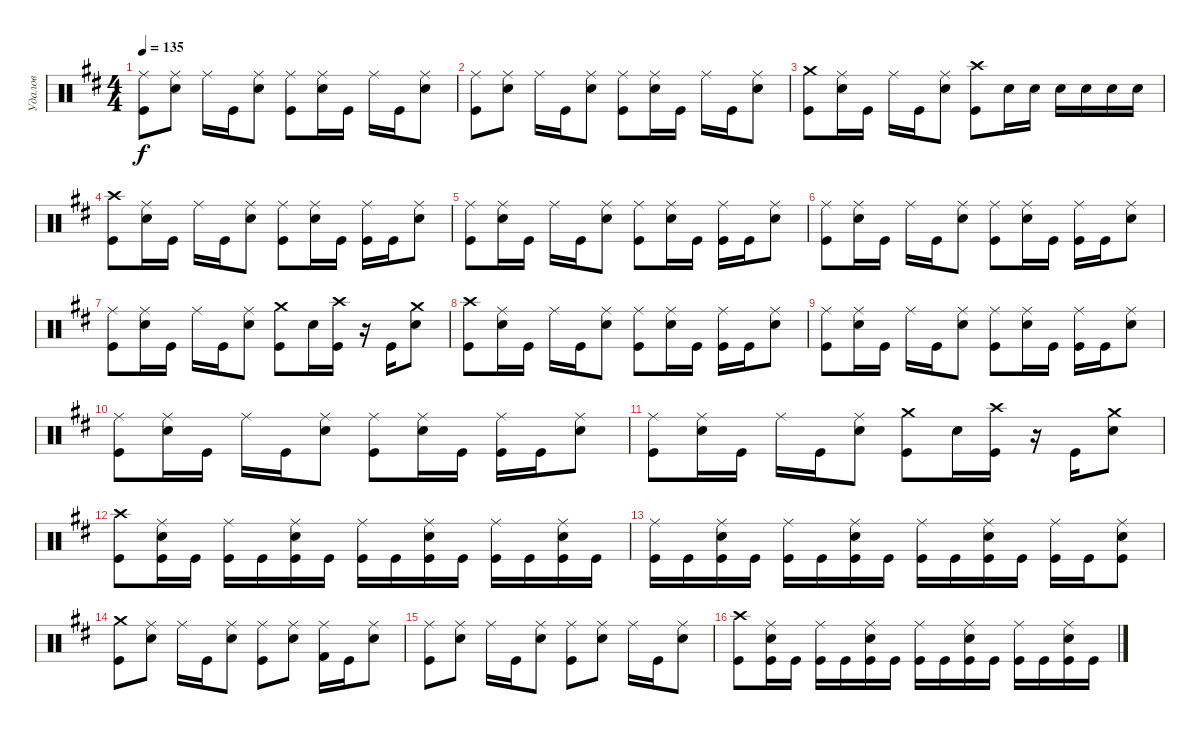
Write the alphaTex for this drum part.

\track ("Удалов" "Удалов") {instrument percussion}
\staff {score}
\articulation defaults
\ts (4 4)
\tempo 135
\clef neutral
\ks d
("Kick (hit)" "Ride (middle)").8{dy f} ("Electric Snare (hit)" "Ride (middle)").8 "Ride (middle)".16 "Kick (hit)".16 ("Electric Snare (hit)" "Ride (middle)").8 ("Ride (middle)" "Kick (hit)").8 ("Ride (middle)" "Electric Snare (hit)").16 "Kick (hit)".16 "Ride (middle)".16 "Kick (hit)".16 ("Electric Snare (hit)" "Ride (middle)").8 |
("Kick (hit)" "Ride (middle)").8 ("Electric Snare (hit)" "Ride (middle)").8 "Ride (middle)".16 "Kick (hit)".16 ("Electric Snare (hit)" "Ride (middle)").8 ("Ride (middle)" "Kick (hit)").8 ("Ride (middle)" "Electric Snare (hit)").16 "Kick (hit)".16 "Ride (middle)".16 "Kick (hit)".16 ("Electric Snare (hit)" "Ride (middle)").8 |
("Crash medium (hit)" "Kick (hit)").8 ("Ride (middle)" "Electric Snare (hit)").16 "Kick (hit)".16 "Ride (middle)".16 "Kick (hit)".16 ("Electric Snare (hit)" "Ride (middle)").8 ("Crash high (hit)" "Kick (hit)").8 "Electric Snare (hit)".16 "Electric Snare (hit)".16 "Electric Snare (hit)".16 "Electric Snare (hit)".16 "Electric Snare (hit)".16 "Electric Snare (hit)".16 |
("Crash high (hit)" "Kick (hit)").8 ("Ride (middle)" "Electric Snare (hit)").16 "Kick (hit)".16 "Ride (middle)".16 "Kick (hit)".16 ("Electric Snare (hit)" "Ride (middle)").8 ("Kick (hit)" "Ride (middle)").8 ("Electric Snare (hit)" "Ride (middle)").16 "Kick (hit)".16 ("Kick (hit)" "Ride (middle)").16 "Kick (hit)".16 ("Electric Snare (hit)" "Ride (middle)").8 |
("Ride (middle)" "Kick (hit)").8 ("Ride (middle)" "Electric Snare (hit)").16 "Kick (hit)".16 "Ride (middle)".16 "Kick (hit)".16 ("Electric Snare (hit)" "Ride (middle)").8 ("Kick (hit)" "Ride (middle)").8 ("Electric Snare (hit)" "Ride (middle)").16 "Kick (hit)".16 ("Kick (hit)" "Ride (middle)").16 "Kick (hit)".16 ("Electric Snare (hit)" "Ride (middle)").8 |
("Ride (middle)" "Kick (hit)").8 ("Ride (middle)" "Electric Snare (hit)").16 "Kick (hit)".16 "Ride (middle)".16 "Kick (hit)".16 ("Electric Snare (hit)" "Ride (middle)").8 ("Kick (hit)" "Ride (middle)").8 ("Electric Snare (hit)" "Ride (middle)").16 "Kick (hit)".16 ("Kick (hit)" "Ride (middle)").16 "Kick (hit)".16 ("Electric Snare (hit)" "Ride (middle)").8 |
("Ride (middle)" "Kick (hit)").8 ("Ride (middle)" "Electric Snare (hit)").16 "Kick (hit)".16 "Ride (middle)".16 "Kick (hit)".16 ("Electric Snare (hit)" "Ride (middle)").8 ("Kick (hit)" "Crash medium (hit)").8 "Electric Snare (hit)".16 ("Kick (hit)" "Crash high (hit)").16 r.16 "Kick (hit)".16 ("Electric Snare (hit)" "Crash medium (hit)").8 |
("Crash high (hit)" "Kick (hit)").8 ("Ride (middle)" "Electric Snare (hit)").16 "Kick (hit)".16 "Ride (middle)".16 "Kick (hit)".16 ("Electric Snare (hit)" "Ride (middle)").8 ("Kick (hit)" "Ride (middle)").8 ("Electric Snare (hit)" "Ride (middle)").16 "Kick (hit)".16 ("Kick (hit)" "Ride (middle)").16 "Kick (hit)".16 ("Electric Snare (hit)" "Ride (middle)").8 |
("Ride (middle)" "Kick (hit)").8 ("Ride (middle)" "Electric Snare (hit)").16 "Kick (hit)".16 "Ride (middle)".16 "Kick (hit)".16 ("Electric Snare (hit)" "Ride (middle)").8 ("Kick (hit)" "Ride (middle)").8 ("Electric Snare (hit)" "Ride (middle)").16 "Kick (hit)".16 ("Kick (hit)" "Ride (middle)").16 "Kick (hit)".16 ("Electric Snare (hit)" "Ride (middle)").8 |
("Ride (middle)" "Kick (hit)").8 ("Ride (middle)" "Electric Snare (hit)").16 "Kick (hit)".16 "Ride (middle)".16 "Kick (hit)".16 ("Electric Snare (hit)" "Ride (middle)").8 ("Kick (hit)" "Ride (middle)").8 ("Electric Snare (hit)" "Ride (middle)").16 "Kick (hit)".16 ("Kick (hit)" "Ride (middle)").16 "Kick (hit)".16 ("Electric Snare (hit)" "Ride (middle)").8 |
("Ride (middle)" "Kick (hit)").8 ("Ride (middle)" "Electric Snare (hit)").16 "Kick (hit)".16 "Ride (middle)".16 "Kick (hit)".16 ("Electric Snare (hit)" "Ride (middle)").8 ("Kick (hit)" "Crash medium (hit)").8 "Electric Snare (hit)".16 ("Kick (hit)" "Crash high (hit)").16 r.16 "Kick (hit)".16 ("Electric Snare (hit)" "Crash medium (hit)").8 |
("Kick (hit)" "Crash high (hit)").8 ("Kick (hit)" "Ride (middle)" "Electric Snare (hit)").16 "Kick (hit)".16 ("Kick (hit)" "Ride (middle)").16 "Kick (hit)".16 ("Kick (hit)" "Ride (middle)" "Electric Snare (hit)").16 "Kick (hit)".16 ("Kick (hit)" "Ride (middle)").16 "Kick (hit)".16 ("Kick (hit)" "Ride (middle)" "Electric Snare (hit)").16 "Kick (hit)".16 ("Kick (hit)" "Ride (middle)").16 "Kick (hit)".16 ("Kick (hit)" "Ride (middle)" "Electric Snare (hit)").16 "Kick (hit)".16 |
("Kick (hit)" "Ride (middle)").16 "Kick (hit)".16 ("Kick (hit)" "Ride (middle)" "Electric Snare (hit)").16 "Kick (hit)".16 ("Kick (hit)" "Ride (middle)").16 "Kick (hit)".16 ("Kick (hit)" "Ride (middle)" "Electric Snare (hit)").16 "Kick (hit)".16 ("Kick (hit)" "Ride (middle)").16 "Kick (hit)".16 ("Kick (hit)" "Ride (middle)" "Electric Snare (hit)").16 "Kick (hit)".16 ("Kick (hit)" "Ride (middle)").16 "Kick (hit)".16 ("Kick (hit)" "Ride (middle)" "Electric Snare (hit)").8 |
("Kick (hit)" "Crash medium (hit)").8 ("Electric Snare (hit)" "Ride (middle)").8 "Ride (middle)".16 "Kick (hit)".16 ("Electric Snare (hit)" "Ride (middle)").8 ("Kick (hit)" "Ride (middle)").8 ("Ride (middle)" "Electric Snare (hit)").8 ("Kick (hit) 2" "Ride (middle)").16 "Kick (hit)".16 ("Electric Snare (hit)" "Ride (middle)").8 |
("Kick (hit)" "Ride (middle)").8 ("Electric Snare (hit)" "Ride (middle)").8 "Ride (middle)".16 "Kick (hit)".16 ("Electric Snare (hit)" "Ride (middle)").8 ("Kick (hit)" "Ride (middle)").8 ("Electric Snare (hit)" "Ride (middle)").8 "Ride (middle)".16 "Kick (hit)".16 ("Electric Snare (hit)" "Ride (middle)").8 |
("Kick (hit)" "Crash high (hit)").8 ("Kick (hit)" "Ride (middle)" "Electric Snare (hit)").16 "Kick (hit)".16 ("Kick (hit)" "Ride (middle)").16 "Kick (hit)".16 ("Kick (hit)" "Ride (middle)" "Electric Snare (hit)").16 "Kick (hit)".16 ("Kick (hit)" "Ride (middle)").16 "Kick (hit)".16 ("Kick (hit)" "Ride (middle)" "Electric Snare (hit)").16 "Kick (hit)".16 ("Kick (hit)" "Ride (middle)").16 "Kick (hit)".16 ("Kick (hit)" "Ride (middle)" "Electric Snare (hit)").16 "Kick (hit)".16
